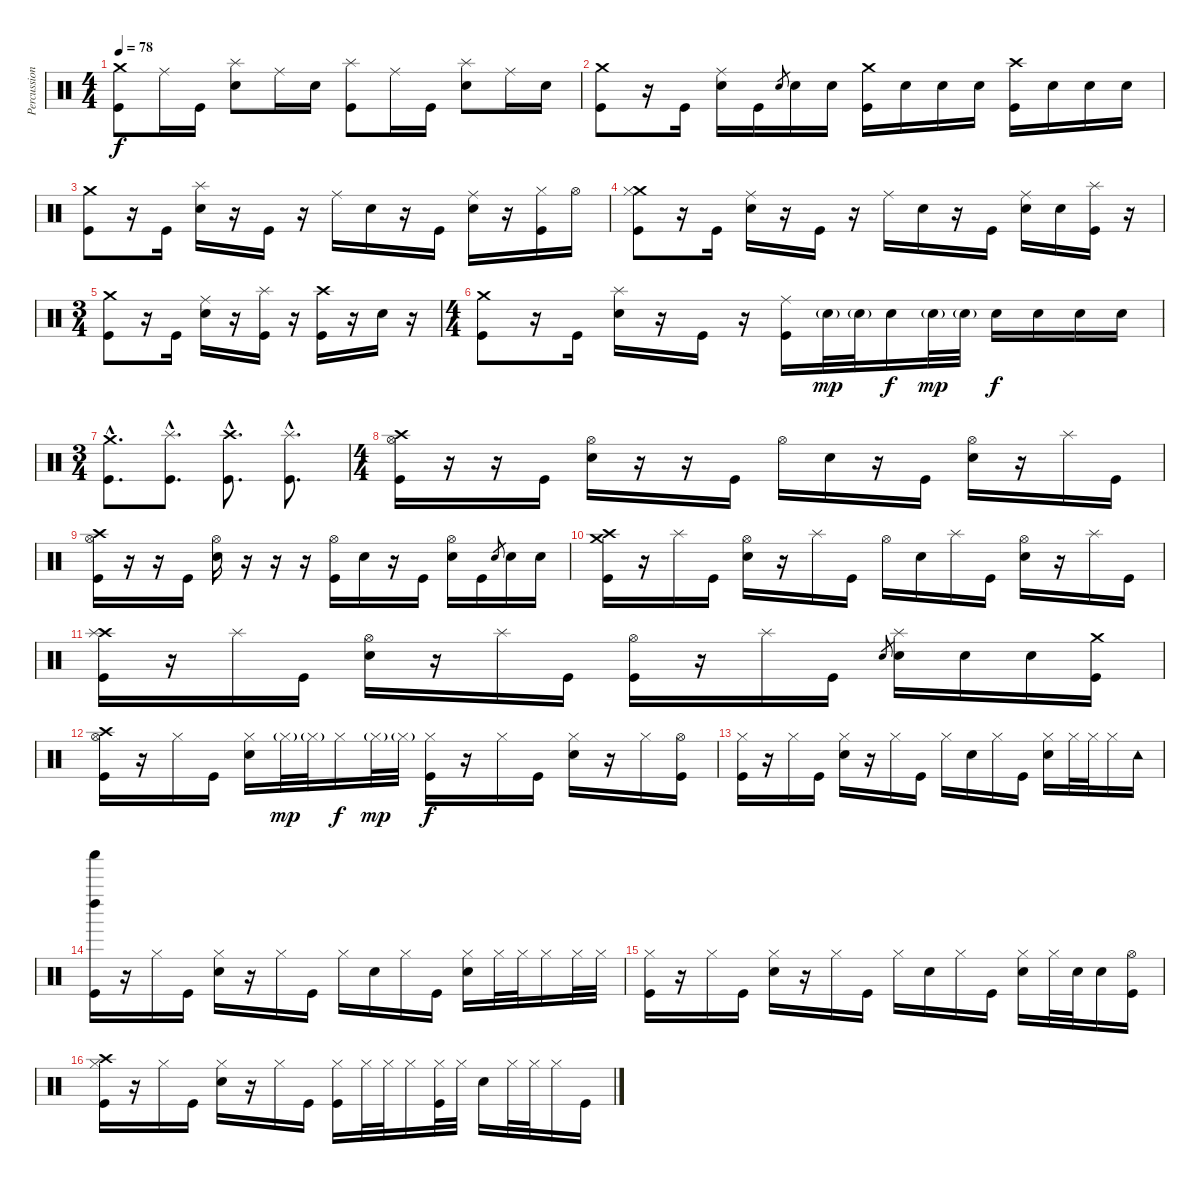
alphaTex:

\track ("Percussions" "Percussion") {instrument percussion}
\staff {score}
\articulation defaults
\ts (4 4)
\tempo 78
\clef neutral
\ks c
("Crash medium (hit)" "Kick (hit)").8{dy f} "Ride (middle)".16 "Kick (hit)".16 ("Splash (hit)" "Snare (hit) 2").8 "Ride (middle)".16 "Snare (hit) 2".16 ("Splash (hit)" "Kick (hit)").8 "Ride (middle)".16 "Kick (hit)".16 ("Splash (hit)" "Snare (hit) 2").8 "Ride (middle)".16 "Snare (hit) 2".16 |
("Crash medium (hit)" "Kick (hit)").8 r.16 "Kick (hit)".16 ("Ride (middle)" "Snare (hit) 2").16 "Kick (hit)".16 "Snare (hit) 2".8{gr} "Snare (hit) 2".16 "Snare (hit) 2".16 ("Crash medium (hit)" "Kick (hit)").16 "Snare (hit) 2".16 "Snare (hit) 2".16 "Snare (hit) 2".16 ("Crash high (hit)" "Kick (hit)").16 "Snare (hit) 2".16 "Snare (hit) 2".16 "Snare (hit) 2".16 |
("Crash medium (hit)" "Kick (hit)").8 r.16 "Kick (hit)".16 ("Splash (hit)" "Snare (hit) 2").16 r.16 "Kick (hit)".16 r.16 "Ride (middle)".16 "Snare (hit) 2".16 r.16 "Kick (hit)".16 ("Ride (middle)" "Snare (hit) 2").16 r.16 ("Hi-Hat (closed)" "Kick (hit)").16 "Hi-Hat (open)".16 |
("Crash medium (hit)" "Hi-Hat (closed)" "Kick (hit)").8 r.16 "Kick (hit)".16 ("Ride (middle)" "Snare (hit) 2").16 r.16 "Kick (hit)".16 r.16 "Ride (middle)".16 "Snare (hit) 2".16 r.16 "Kick (hit)".16 ("Ride (middle)" "Snare (hit) 2").16 "Snare (hit) 2".16 ("Splash (hit)" "Kick (hit)").16 r.16 |
\ts (3 4)
("Crash medium (hit)" "Kick (hit)").8 r.16 "Kick (hit)".16 ("Ride (middle)" "Snare (hit) 2").16 r.16 ("Splash (hit)" "Kick (hit)").16 r.16 ("Crash high (hit)" "Kick (hit)").16 r.16 "Snare (hit) 2".16 r.16 |
\ts (4 4)
("Crash medium (hit)" "Kick (hit)").8 r.16 "Kick (hit)".16 ("Splash (hit)" "Snare (hit) 2").16 r.16 "Kick (hit)".16 r.16 ("Ride (middle)" "Kick (hit)").16 "Snare (hit) 2"{g}.32{dy mp} "Snare (hit) 2"{g}.32 "Snare (hit) 2".16{dy f} "Snare (hit) 2"{g}.32{dy mp} "Snare (hit) 2"{g}.32 "Snare (hit) 2".16{dy f} "Snare (hit) 2".16 "Snare (hit) 2".16 "Snare (hit) 2".16 |
\ts (3 4)
("Crash medium (hit)"{hac} "Kick (hit)"{hac}).8{d} ("Splash (hit)"{hac} "Kick (hit)"{hac}).8{d} ("Crash high (hit)"{hac} "Kick (hit)"{hac}).8{d} ("Splash (hit)"{hac} "Kick (hit)"{hac}).8{d} |
\ts (4 4)
("Crash high (hit)" "Hi-Hat (open)" "Kick (hit)").16 r.16 r.16 "Kick (hit)".16 ("Hi-Hat (open)" "Snare (hit) 2").16 r.16 r.16 "Kick (hit)".16 "Hi-Hat (open)".16 "Snare (hit) 2".16 r.16 "Kick (hit)".16 ("Hi-Hat (open)" "Snare (hit) 2").16 r.16 "Splash (hit)".16 "Kick (hit)".16 |
("Crash high (hit)" "Hi-Hat (open)" "Kick (hit)").16 r.16 r.16 "Kick (hit)".16 ("Hi-Hat (open)" "Snare (hit) 2").16 r.16 r.16 r.16 ("Hi-Hat (open)" "Kick (hit)").16 "Snare (hit) 2".16 r.16 "Kick (hit)".16 ("Hi-Hat (open)" "Snare (hit) 2").16 "Kick (hit)".16 "Snare (hit) 2".8{gr} "Snare (hit) 2".16 "Snare (hit) 2".16 |
("Crash high (hit)" "Crash medium (hit)" "Kick (hit)").16 r.16 "Splash (hit)".16 "Kick (hit)".16 ("Hi-Hat (open)" "Snare (hit) 2").16 r.16 "Splash (hit)".16 "Kick (hit)".16 "Hi-Hat (open)".16 "Snare (hit) 2".16 "Splash (hit)".16 "Kick (hit)".16 ("Hi-Hat (open)" "Snare (hit) 2").16 r.16 "Splash (hit)".16 "Kick (hit)".16 |
("Crash high (hit)" "Splash (hit)" "Kick (hit)").16 r.16 "Splash (hit)".16 "Kick (hit)".16 ("Hi-Hat (open)" "Snare (hit) 2").16 r.16 "Splash (hit)".16 "Kick (hit)".16 ("Hi-Hat (open)" "Kick (hit)").16 r.16 "Splash (hit)".16 "Kick (hit)".16 "Snare (hit) 2".8{gr} ("Splash (hit)" "Snare (hit) 2").16 "Snare (hit) 2".16 "Snare (hit) 2".16 ("Crash medium (hit)" "Kick (hit)").16 |
("Crash high (hit)" "Hi-Hat (open)" "Kick (hit)").16 r.16 "Hi-Hat (closed)".16 "Kick (hit)".16 ("Hi-Hat (closed)" "Snare (hit) 2").16 "Hi-Hat (closed)"{g}.32{dy mp} "Hi-Hat (closed)"{g}.32 "Hi-Hat (closed)".16{dy f} "Hi-Hat (closed)"{g}.32{dy mp} "Hi-Hat (closed)"{g}.32 ("Hi-Hat (closed)" "Kick (hit)").16{dy f} r.16 "Hi-Hat (closed)".16 "Kick (hit)".16 ("Hi-Hat (closed)" "Snare (hit) 2").16 r.16 "Hi-Hat (closed)".16 ("Hi-Hat (open)" "Kick (hit)").16 |
("Hi-Hat (closed)" "Kick (hit)").16 r.16 "Hi-Hat (closed)".16 "Kick (hit)".16 ("Hi-Hat (closed)" "Snare (hit) 2").16 r.16 "Hi-Hat (closed)".16 "Kick (hit)".16 "Hi-Hat (closed)".16 "Snare (hit) 2".16 "Hi-Hat (closed)".16 "Kick (hit)".16 ("Hi-Hat (closed)" "Snare (hit) 2").16 "Hi-Hat (closed)".32 "Hi-Hat (closed)".32 "Hi-Hat (closed)".16 "Tambourine (hit)".16 |
("Left Maraca (hit)" "Shaker (hit)" "Kick (hit)").16 r.16 "Hi-Hat (closed)".16 "Kick (hit)".16 ("Hi-Hat (closed)" "Snare (hit) 2").16 r.16 "Hi-Hat (closed)".16 "Kick (hit)".16 "Hi-Hat (closed)".16 "Snare (hit) 2".16 "Hi-Hat (closed)".16 "Kick (hit)".16 ("Hi-Hat (closed)" "Snare (hit) 2").16 "Hi-Hat (closed)".32 "Hi-Hat (closed)".32 "Hi-Hat (closed)".16 "Hi-Hat (closed)".32 "Hi-Hat (closed)".32 |
("Hi-Hat (closed)" "Kick (hit)").16 r.16 "Hi-Hat (closed)".16 "Kick (hit)".16 ("Hi-Hat (closed)" "Snare (hit) 2").16 r.16 "Hi-Hat (closed)".16 "Kick (hit)".16 "Hi-Hat (closed)".16 "Snare (hit) 2".16 "Hi-Hat (closed)".16 "Kick (hit)".16 ("Hi-Hat (closed)" "Snare (hit) 2").16 "Hi-Hat (closed)".32 "Electric Snare (hit)".32 "Snare (hit) 2".16 ("Hi-Hat (open)" "Kick (hit)").16 |
("Crash high (hit)" "Hi-Hat (closed)" "Kick (hit)").16 r.16 "Hi-Hat (closed)".16 "Kick (hit)".16 ("Hi-Hat (closed)" "Snare (hit) 2").16 r.16 "Hi-Hat (closed)".16 "Kick (hit)".16 ("Hi-Hat (closed)" "Kick (hit)").16 "Hi-Hat (closed)".32 "Hi-Hat (closed)".32 "Hi-Hat (closed)".16 ("Hi-Hat (closed)" "Kick (hit)").32 "Hi-Hat (closed)".32 "Snare (hit) 2".16 "Hi-Hat (closed)".32 "Hi-Hat (closed)".32 "Hi-Hat (closed)".16 "Kick (hit)".16
